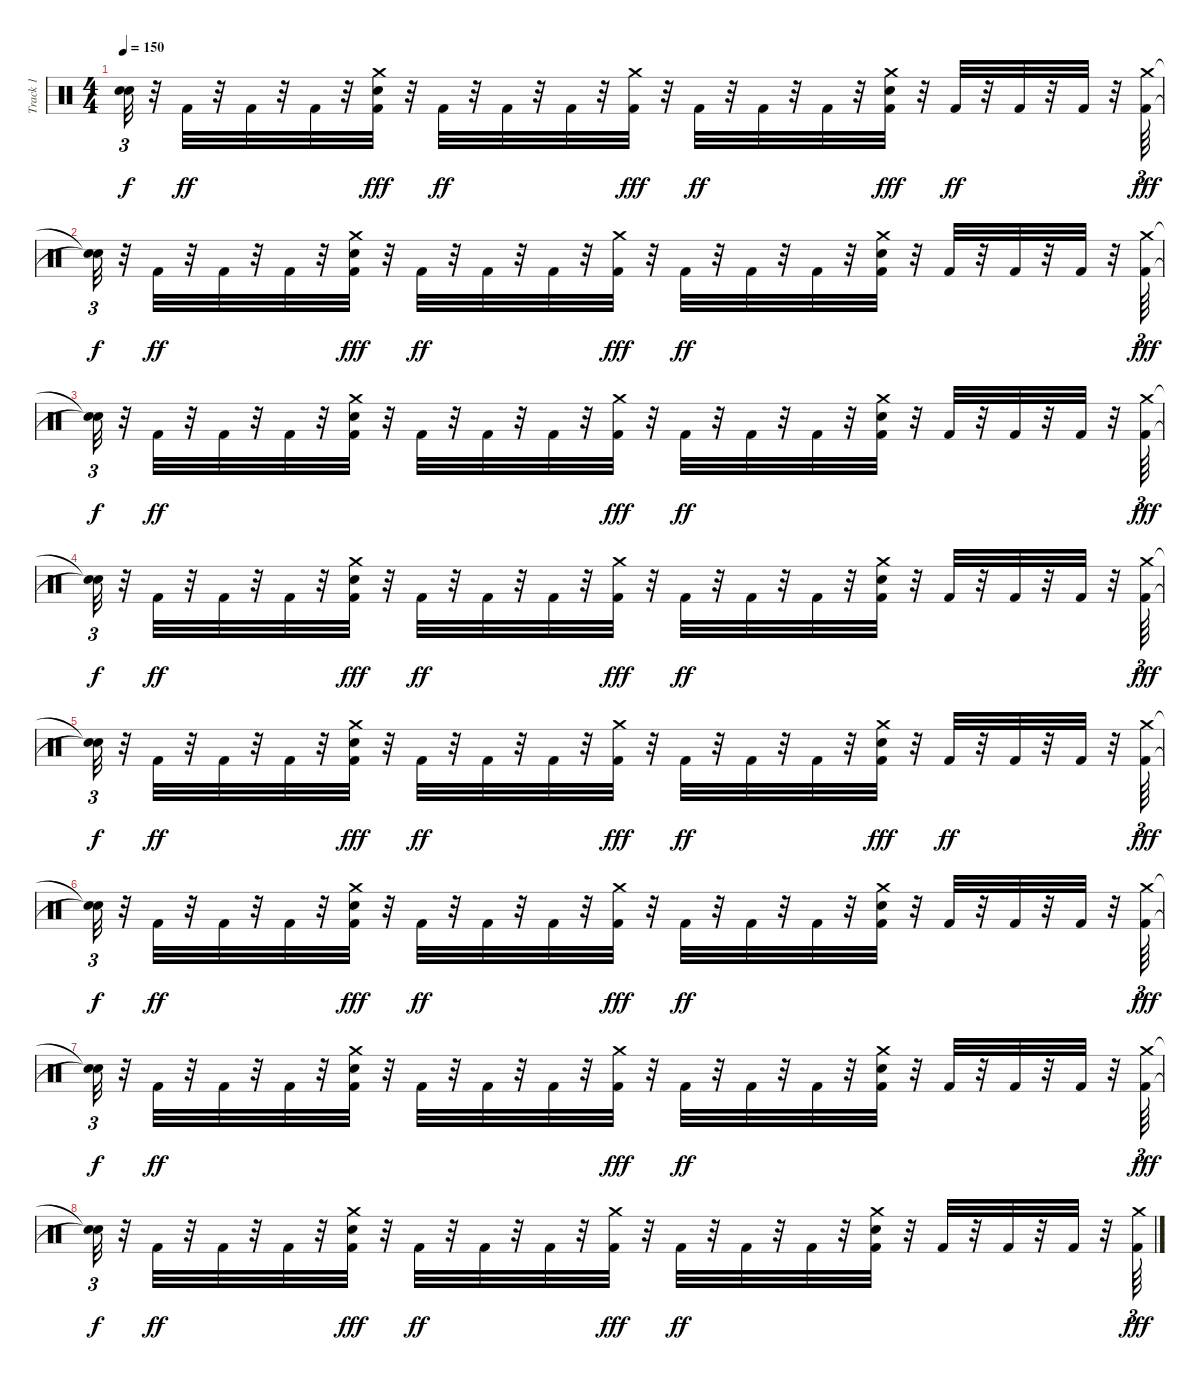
\track ("Track 1" "Track 1") {instrument percussion}
\staff {score}
\articulation defaults
\ts (4 4)
\tempo 150
\clef neutral
\ks c
("Snare (hit)"{t} "Snare (hit)"{t}).32{tu (3 2) dy f} r.32 "Kick (hit) 2".32{dy ff} r.32 "Kick (hit) 2".32 r.32 "Kick (hit) 2".32 r.32 ("Crash medium (hit)" "Kick (hit) 2" "Snare (hit) 2").32{dy fff} r.32 "Kick (hit) 2".32{dy ff} r.32 "Kick (hit) 2".32 r.32 "Kick (hit) 2".32 r.32 ("Kick (hit) 2" "Crash medium (hit)").32{dy fff} r.32 "Kick (hit) 2".32{dy ff} r.32 "Kick (hit) 2".32 r.32 "Kick (hit) 2".32 r.32 ("Crash medium (hit)" "Kick (hit) 2" "Snare (hit) 2").32{dy fff} r.32 "Kick (hit) 2".32{dy ff} r.32 "Kick (hit) 2".32 r.32 "Kick (hit) 2".32 r.32 ("Kick (hit) 2" "Crash medium (hit)").64{tu (3 2) dy fff} |
("Snare (hit)"{t} "Snare (hit)"{t}).32{tu (3 2) dy f} r.32 "Kick (hit) 2".32{dy ff} r.32 "Kick (hit) 2".32 r.32 "Kick (hit) 2".32 r.32 ("Crash medium (hit)" "Kick (hit) 2" "Snare (hit) 2").32{dy fff} r.32 "Kick (hit) 2".32{dy ff} r.32 "Kick (hit) 2".32 r.32 "Kick (hit) 2".32 r.32 ("Kick (hit) 2" "Crash medium (hit)").32{dy fff} r.32 "Kick (hit) 2".32{dy ff} r.32 "Kick (hit) 2".32 r.32 "Kick (hit) 2".32 r.32 ("Snare (hit) 2" "Crash medium (hit)" "Kick (hit) 2").32 r.32 "Kick (hit) 2".32 r.32 "Kick (hit) 2".32 r.32 "Kick (hit) 2".32 r.32 ("Kick (hit) 2" "Crash medium (hit)").64{tu (3 2) dy fff} |
("Snare (hit)"{t} "Snare (hit)"{t}).32{tu (3 2) dy f} r.32 "Kick (hit) 2".32{dy ff} r.32 "Kick (hit) 2".32 r.32 "Kick (hit) 2".32 r.32 ("Crash medium (hit)" "Snare (hit) 2" "Kick (hit) 2").32 r.32 "Kick (hit) 2".32 r.32 "Kick (hit) 2".32 r.32 "Kick (hit) 2".32 r.32 ("Kick (hit) 2" "Crash medium (hit)").32{dy fff} r.32 "Kick (hit) 2".32{dy ff} r.32 "Kick (hit) 2".32 r.32 "Kick (hit) 2".32 r.32 ("Snare (hit) 2" "Crash medium (hit)" "Kick (hit) 2").32 r.32 "Kick (hit) 2".32 r.32 "Kick (hit) 2".32 r.32 "Kick (hit) 2".32 r.32 ("Kick (hit) 2" "Crash medium (hit)").64{tu (3 2) dy fff} |
("Snare (hit)"{t} "Snare (hit)"{t}).32{tu (3 2) dy f} r.32 "Kick (hit) 2".32{dy ff} r.32 "Kick (hit) 2".32 r.32 "Kick (hit) 2".32 r.32 ("Crash medium (hit)" "Kick (hit) 2" "Snare (hit) 2").32{dy fff} r.32 "Kick (hit) 2".32{dy ff} r.32 "Kick (hit) 2".32 r.32 "Kick (hit) 2".32 r.32 ("Kick (hit) 2" "Crash medium (hit)").32{dy fff} r.32 "Kick (hit) 2".32{dy ff} r.32 "Kick (hit) 2".32 r.32 "Kick (hit) 2".32 r.32 ("Crash medium (hit)" "Snare (hit) 2" "Kick (hit) 2").32 r.32 "Kick (hit) 2".32 r.32 "Kick (hit) 2".32 r.32 "Kick (hit) 2".32 r.32 ("Kick (hit) 2" "Crash medium (hit)").64{tu (3 2) dy fff} |
("Snare (hit)"{t} "Snare (hit)"{t}).32{tu (3 2) dy f} r.32 "Kick (hit) 2".32{dy ff} r.32 "Kick (hit) 2".32 r.32 "Kick (hit) 2".32 r.32 ("Crash medium (hit)" "Kick (hit) 2" "Snare (hit) 2").32{dy fff} r.32 "Kick (hit) 2".32{dy ff} r.32 "Kick (hit) 2".32 r.32 "Kick (hit) 2".32 r.32 ("Kick (hit) 2" "Crash medium (hit)").32{dy fff} r.32 "Kick (hit) 2".32{dy ff} r.32 "Kick (hit) 2".32 r.32 "Kick (hit) 2".32 r.32 ("Crash medium (hit)" "Kick (hit) 2" "Snare (hit) 2").32{dy fff} r.32 "Kick (hit) 2".32{dy ff} r.32 "Kick (hit) 2".32 r.32 "Kick (hit) 2".32 r.32 ("Kick (hit) 2" "Crash medium (hit)").64{tu (3 2) dy fff} |
("Snare (hit)"{t} "Snare (hit)"{t}).32{tu (3 2) dy f} r.32 "Kick (hit) 2".32{dy ff} r.32 "Kick (hit) 2".32 r.32 "Kick (hit) 2".32 r.32 ("Crash medium (hit)" "Kick (hit) 2" "Snare (hit) 2").32{dy fff} r.32 "Kick (hit) 2".32{dy ff} r.32 "Kick (hit) 2".32 r.32 "Kick (hit) 2".32 r.32 ("Kick (hit) 2" "Crash medium (hit)").32{dy fff} r.32 "Kick (hit) 2".32{dy ff} r.32 "Kick (hit) 2".32 r.32 "Kick (hit) 2".32 r.32 ("Snare (hit) 2" "Crash medium (hit)" "Kick (hit) 2").32 r.32 "Kick (hit) 2".32 r.32 "Kick (hit) 2".32 r.32 "Kick (hit) 2".32 r.32 ("Kick (hit) 2" "Crash medium (hit)").64{tu (3 2) dy fff} |
("Snare (hit)"{t} "Snare (hit)"{t}).32{tu (3 2) dy f} r.32 "Kick (hit) 2".32{dy ff} r.32 "Kick (hit) 2".32 r.32 "Kick (hit) 2".32 r.32 ("Crash medium (hit)" "Snare (hit) 2" "Kick (hit) 2").32 r.32 "Kick (hit) 2".32 r.32 "Kick (hit) 2".32 r.32 "Kick (hit) 2".32 r.32 ("Kick (hit) 2" "Crash medium (hit)").32{dy fff} r.32 "Kick (hit) 2".32{dy ff} r.32 "Kick (hit) 2".32 r.32 "Kick (hit) 2".32 r.32 ("Snare (hit) 2" "Crash medium (hit)" "Kick (hit) 2").32 r.32 "Kick (hit) 2".32 r.32 "Kick (hit) 2".32 r.32 "Kick (hit) 2".32 r.32 ("Kick (hit) 2" "Crash medium (hit)").64{tu (3 2) dy fff} |
("Snare (hit)"{t} "Snare (hit)"{t}).32{tu (3 2) dy f} r.32 "Kick (hit) 2".32{dy ff} r.32 "Kick (hit) 2".32 r.32 "Kick (hit) 2".32 r.32 ("Crash medium (hit)" "Kick (hit) 2" "Snare (hit) 2").32{dy fff} r.32 "Kick (hit) 2".32{dy ff} r.32 "Kick (hit) 2".32 r.32 "Kick (hit) 2".32 r.32 ("Kick (hit) 2" "Crash medium (hit)").32{dy fff} r.32 "Kick (hit) 2".32{dy ff} r.32 "Kick (hit) 2".32 r.32 "Kick (hit) 2".32 r.32 ("Crash medium (hit)" "Snare (hit) 2" "Kick (hit) 2").32 r.32 "Kick (hit) 2".32 r.32 "Kick (hit) 2".32 r.32 "Kick (hit) 2".32 r.32 ("Kick (hit) 2" "Crash medium (hit)").64{tu (3 2) dy fff}
